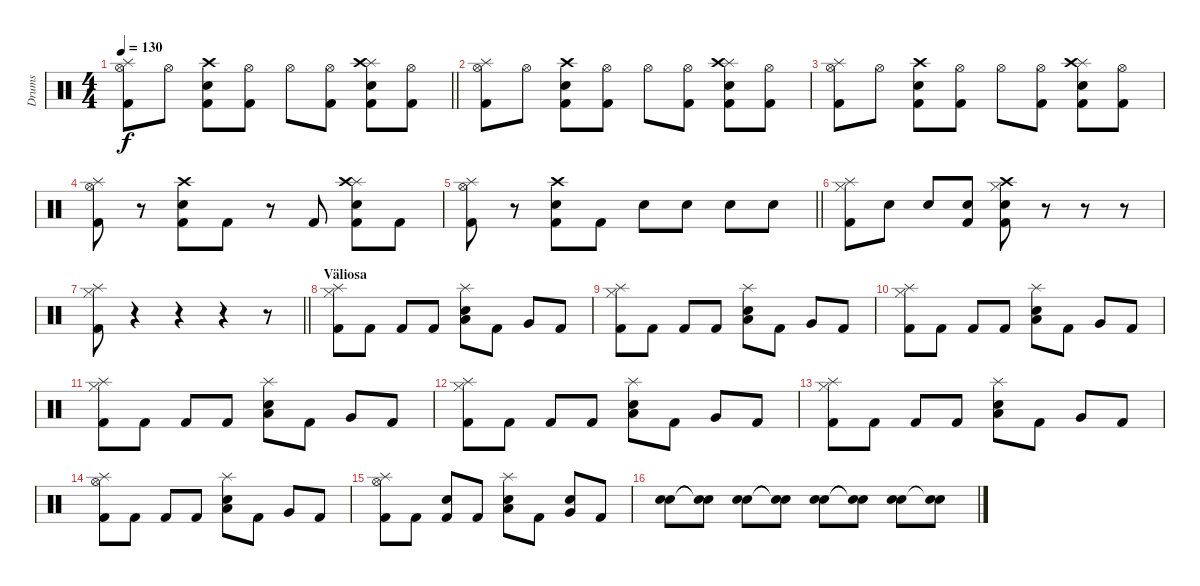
\track ("Drums" "Drums") {instrument percussion}
\staff {score}
\articulation defaults
\ts (4 4)
\tempo 130
\clef neutral
\barLineRight lightlight
\ks c
("Splash (hit)" "Kick (hit) 2" "Hi-Hat (open)").8{dy f} "Hi-Hat (open)".8 ("Electric Snare (hit)" "Kick (hit) 2" "Crash high (hit)").8 ("Kick (hit) 2" "Hi-Hat (open)").8 "Hi-Hat (open)".8 ("Kick (hit) 2" "Hi-Hat (open)").8 ("Splash (hit)" "Electric Snare (hit)" "Kick (hit) 2" "Crash high (hit)").8 ("Kick (hit) 2" "Hi-Hat (open)").8 |
("Splash (hit)" "Kick (hit) 2" "Hi-Hat (open)").8 "Hi-Hat (open)".8 ("Electric Snare (hit)" "Kick (hit) 2" "Crash high (hit)").8 ("Kick (hit) 2" "Hi-Hat (open)").8 "Hi-Hat (open)".8 ("Kick (hit) 2" "Hi-Hat (open)").8 ("Splash (hit)" "Electric Snare (hit)" "Kick (hit) 2" "Crash high (hit)").8 ("Kick (hit) 2" "Hi-Hat (open)").8 |
("Splash (hit)" "Kick (hit) 2" "Hi-Hat (open)").8 "Hi-Hat (open)".8 ("Electric Snare (hit)" "Kick (hit) 2" "Crash high (hit)").8 ("Kick (hit) 2" "Hi-Hat (open)").8 "Hi-Hat (open)".8 ("Kick (hit) 2" "Hi-Hat (open)").8 ("Splash (hit)" "Electric Snare (hit)" "Kick (hit) 2" "Crash high (hit)").8 ("Kick (hit) 2" "Hi-Hat (open)").8 |
("Splash (hit)" "Kick (hit) 2" "Hi-Hat (open)").8 r.8 ("Electric Snare (hit)" "Kick (hit) 2" "Crash high (hit)").8 "Kick (hit) 2".8 r.8 "Kick (hit) 2".8 ("Splash (hit)" "Electric Snare (hit)" "Kick (hit) 2" "Crash high (hit)").8 "Kick (hit) 2".8 |
\barLineRight lightlight
("Splash (hit)" "Kick (hit) 2" "Hi-Hat (open)").8 r.8 ("Electric Snare (hit)" "Kick (hit) 2" "Crash high (hit)").8 "Kick (hit) 2".8 "Electric Snare (hit)".8 "Electric Snare (hit)".8 "Electric Snare (hit)".8 "Electric Snare (hit)".8 |
("Splash (hit)" "Kick (hit) 2" "Hi-Hat (closed)").8 "Electric Snare (hit)".8 "Electric Snare (hit)".8 ("Kick (hit) 2" "Electric Snare (hit)").8 ("Crash high (hit)" "Electric Snare (hit)" "Kick (hit) 2" "Hi-Hat (closed)").8 r.8 r.8 r.8 |
\barLineRight lightlight
("Splash (hit)" "Kick (hit) 2" "Hi-Hat (closed)").8 r.4 r.4 r.4 r.8 |
\section ("" "Väliosa")
("Splash (hit)" "Hi-Hat (closed)" "Kick (hit) 2").8 "Kick (hit) 2".8 "Kick (hit) 2".8 "Kick (hit) 2".8 ("Low Tom (hit)" "Splash (hit)" "Electric Snare (hit)").8 "Kick (hit) 2".8 "Very Low Tom (hit)".8 "Kick (hit) 2".8 |
("Splash (hit)" "Hi-Hat (closed)" "Kick (hit) 2").8 "Kick (hit) 2".8 "Kick (hit) 2".8 "Kick (hit) 2".8 ("Low Tom (hit)" "Splash (hit)" "Electric Snare (hit)").8 "Kick (hit) 2".8 "Very Low Tom (hit)".8 "Kick (hit) 2".8 |
("Splash (hit)" "Hi-Hat (closed)" "Kick (hit) 2").8 "Kick (hit) 2".8 "Kick (hit) 2".8 "Kick (hit) 2".8 ("Low Tom (hit)" "Splash (hit)" "Electric Snare (hit)").8 "Kick (hit) 2".8 "Very Low Tom (hit)".8 "Kick (hit) 2".8 |
("Splash (hit)" "Hi-Hat (closed)" "Kick (hit) 2").8 "Kick (hit) 2".8 "Kick (hit) 2".8 "Kick (hit) 2".8 ("Low Tom (hit)" "Splash (hit)" "Electric Snare (hit)").8 "Kick (hit) 2".8 "Very Low Tom (hit)".8 "Kick (hit) 2".8 |
("Splash (hit)" "Hi-Hat (closed)" "Kick (hit) 2").8 "Kick (hit) 2".8 "Kick (hit) 2".8 "Kick (hit) 2".8 ("Low Tom (hit)" "Splash (hit)" "Electric Snare (hit)").8 "Kick (hit) 2".8 "Very Low Tom (hit)".8 "Kick (hit) 2".8 |
("Splash (hit)" "Hi-Hat (closed)" "Kick (hit) 2").8 "Kick (hit) 2".8 "Kick (hit) 2".8 "Kick (hit) 2".8 ("Low Tom (hit)" "Splash (hit)" "Electric Snare (hit)").8 "Kick (hit) 2".8 "Very Low Tom (hit)".8 "Kick (hit) 2".8 |
("Splash (hit)" "Hi-Hat (open)" "Kick (hit) 2").8 "Kick (hit) 2".8 "Kick (hit) 2".8 "Kick (hit) 2".8 ("Low Tom (hit)" "Splash (hit)" "Electric Snare (hit)").8 "Kick (hit) 2".8 "Very Low Tom (hit)".8 "Kick (hit) 2".8 |
("Splash (hit)" "Hi-Hat (open)" "Kick (hit) 2").8 "Kick (hit) 2".8 ("Electric Snare (hit)" "Kick (hit) 2").8 "Kick (hit) 2".8 ("Low Tom (hit)" "Splash (hit)" "Electric Snare (hit)").8 "Kick (hit) 2".8 ("Electric Snare (hit)" "Very Low Tom (hit)").8 "Kick (hit) 2".8 |
("Snare (hit) 2" "Electric Snare (hit)").8{bd 240} ("Snare (hit)"{t} "Snare (hit)"{t}).8 ("Snare (hit) 2" "Electric Snare (hit)").8{bd 240} ("Snare (hit)"{t} "Snare (hit)"{t}).8 ("Snare (hit) 2" "Electric Snare (hit)").8{bd 240} ("Snare (hit)"{t} "Snare (hit)"{t}).8 ("Snare (hit) 2" "Electric Snare (hit)").8{bd 240} ("Snare (hit)"{t} "Electric Snare (hit)").8
